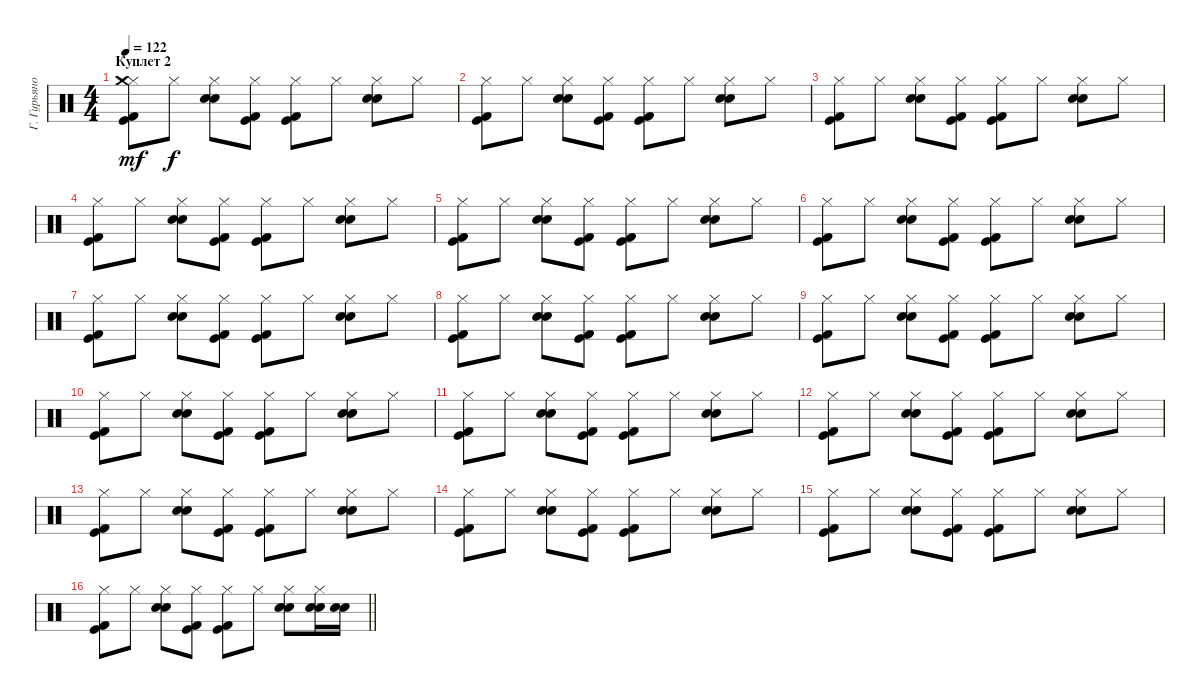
\track ("Г. Гурьянов" "Г. Гурьяно") {instrument percussion}
\staff
\articulation defaults
\ts (4 4)
\section ("" "Куплет 2")
\tempo 122
\clef neutral
\ks c
("Hi-Hat (closed)" "Crash medium (hit)" "Kick (hit)" "Kick (hit) 2").8{dy mf} "Hi-Hat (closed)".8{dy f} ("Hi-Hat (closed)" "Electric Snare (hit)" "Snare (hit) 2").8 ("Hi-Hat (closed)" "Kick (hit)" "Kick (hit) 2").8 ("Hi-Hat (closed)" "Kick (hit)" "Kick (hit) 2").8 "Hi-Hat (closed)".8 ("Hi-Hat (closed)" "Electric Snare (hit)" "Snare (hit) 2").8 "Hi-Hat (closed)".8 |
("Hi-Hat (closed)" "Kick (hit)" "Kick (hit) 2").8 "Hi-Hat (closed)".8 ("Hi-Hat (closed)" "Electric Snare (hit)" "Snare (hit) 2").8 ("Hi-Hat (closed)" "Kick (hit)" "Kick (hit) 2").8 ("Hi-Hat (closed)" "Kick (hit)" "Kick (hit) 2").8 "Hi-Hat (closed)".8 ("Hi-Hat (closed)" "Electric Snare (hit)" "Snare (hit) 2").8 "Hi-Hat (closed)".8 |
("Hi-Hat (closed)" "Kick (hit)" "Kick (hit) 2").8 "Hi-Hat (closed)".8 ("Hi-Hat (closed)" "Electric Snare (hit)" "Snare (hit) 2").8 ("Hi-Hat (closed)" "Kick (hit)" "Kick (hit) 2").8 ("Hi-Hat (closed)" "Kick (hit)" "Kick (hit) 2").8 "Hi-Hat (closed)".8 ("Hi-Hat (closed)" "Electric Snare (hit)" "Snare (hit) 2").8 "Hi-Hat (closed)".8 |
("Hi-Hat (closed)" "Kick (hit)" "Kick (hit) 2").8 "Hi-Hat (closed)".8 ("Hi-Hat (closed)" "Electric Snare (hit)" "Snare (hit) 2").8 ("Hi-Hat (closed)" "Kick (hit)" "Kick (hit) 2").8 ("Hi-Hat (closed)" "Kick (hit)" "Kick (hit) 2").8 "Hi-Hat (closed)".8 ("Hi-Hat (closed)" "Electric Snare (hit)" "Snare (hit) 2").8 "Hi-Hat (closed)".8 |
("Hi-Hat (closed)" "Kick (hit)" "Kick (hit) 2").8 "Hi-Hat (closed)".8 ("Hi-Hat (closed)" "Electric Snare (hit)" "Snare (hit) 2").8 ("Hi-Hat (closed)" "Kick (hit)" "Kick (hit) 2").8 ("Hi-Hat (closed)" "Kick (hit)" "Kick (hit) 2").8 "Hi-Hat (closed)".8 ("Hi-Hat (closed)" "Electric Snare (hit)" "Snare (hit) 2").8 "Hi-Hat (closed)".8 |
("Hi-Hat (closed)" "Kick (hit)" "Kick (hit) 2").8 "Hi-Hat (closed)".8 ("Hi-Hat (closed)" "Electric Snare (hit)" "Snare (hit) 2").8 ("Hi-Hat (closed)" "Kick (hit)" "Kick (hit) 2").8 ("Hi-Hat (closed)" "Kick (hit)" "Kick (hit) 2").8 "Hi-Hat (closed)".8 ("Hi-Hat (closed)" "Electric Snare (hit)" "Snare (hit) 2").8 "Hi-Hat (closed)".8 |
("Hi-Hat (closed)" "Kick (hit)" "Kick (hit) 2").8 "Hi-Hat (closed)".8 ("Hi-Hat (closed)" "Electric Snare (hit)" "Snare (hit) 2").8 ("Hi-Hat (closed)" "Kick (hit)" "Kick (hit) 2").8 ("Hi-Hat (closed)" "Kick (hit)" "Kick (hit) 2").8 "Hi-Hat (closed)".8 ("Hi-Hat (closed)" "Electric Snare (hit)" "Snare (hit) 2").8 "Hi-Hat (closed)".8 |
("Hi-Hat (closed)" "Kick (hit)" "Kick (hit) 2").8 "Hi-Hat (closed)".8 ("Hi-Hat (closed)" "Electric Snare (hit)" "Snare (hit) 2").8 ("Hi-Hat (closed)" "Kick (hit)" "Kick (hit) 2").8 ("Hi-Hat (closed)" "Kick (hit)" "Kick (hit) 2").8 "Hi-Hat (closed)".8 ("Hi-Hat (closed)" "Electric Snare (hit)" "Snare (hit) 2").8 "Hi-Hat (closed)".8 |
("Hi-Hat (closed)" "Kick (hit)" "Kick (hit) 2").8 "Hi-Hat (closed)".8 ("Hi-Hat (closed)" "Electric Snare (hit)" "Snare (hit) 2").8 ("Hi-Hat (closed)" "Kick (hit)" "Kick (hit) 2").8 ("Hi-Hat (closed)" "Kick (hit)" "Kick (hit) 2").8 "Hi-Hat (closed)".8 ("Hi-Hat (closed)" "Electric Snare (hit)" "Snare (hit) 2").8 "Hi-Hat (closed)".8 |
("Hi-Hat (closed)" "Kick (hit)" "Kick (hit) 2").8 "Hi-Hat (closed)".8 ("Hi-Hat (closed)" "Electric Snare (hit)" "Snare (hit) 2").8 ("Hi-Hat (closed)" "Kick (hit)" "Kick (hit) 2").8 ("Hi-Hat (closed)" "Kick (hit)" "Kick (hit) 2").8 "Hi-Hat (closed)".8 ("Hi-Hat (closed)" "Electric Snare (hit)" "Snare (hit) 2").8 "Hi-Hat (closed)".8 |
("Hi-Hat (closed)" "Kick (hit)" "Kick (hit) 2").8 "Hi-Hat (closed)".8 ("Hi-Hat (closed)" "Electric Snare (hit)" "Snare (hit) 2").8 ("Hi-Hat (closed)" "Kick (hit)" "Kick (hit) 2").8 ("Hi-Hat (closed)" "Kick (hit)" "Kick (hit) 2").8 "Hi-Hat (closed)".8 ("Hi-Hat (closed)" "Electric Snare (hit)" "Snare (hit) 2").8 "Hi-Hat (closed)".8 |
("Hi-Hat (closed)" "Kick (hit)" "Kick (hit) 2").8 "Hi-Hat (closed)".8 ("Hi-Hat (closed)" "Electric Snare (hit)" "Snare (hit) 2").8 ("Hi-Hat (closed)" "Kick (hit)" "Kick (hit) 2").8 ("Hi-Hat (closed)" "Kick (hit)" "Kick (hit) 2").8 "Hi-Hat (closed)".8 ("Hi-Hat (closed)" "Electric Snare (hit)" "Snare (hit) 2").8 "Hi-Hat (closed)".8 |
("Hi-Hat (closed)" "Kick (hit)" "Kick (hit) 2").8 "Hi-Hat (closed)".8 ("Hi-Hat (closed)" "Electric Snare (hit)" "Snare (hit) 2").8 ("Hi-Hat (closed)" "Kick (hit)" "Kick (hit) 2").8 ("Hi-Hat (closed)" "Kick (hit)" "Kick (hit) 2").8 "Hi-Hat (closed)".8 ("Hi-Hat (closed)" "Electric Snare (hit)" "Snare (hit) 2").8 "Hi-Hat (closed)".8 |
("Hi-Hat (closed)" "Kick (hit)" "Kick (hit) 2").8 "Hi-Hat (closed)".8 ("Hi-Hat (closed)" "Electric Snare (hit)" "Snare (hit) 2").8 ("Hi-Hat (closed)" "Kick (hit)" "Kick (hit) 2").8 ("Hi-Hat (closed)" "Kick (hit)" "Kick (hit) 2").8 "Hi-Hat (closed)".8 ("Hi-Hat (closed)" "Electric Snare (hit)" "Snare (hit) 2").8 "Hi-Hat (closed)".8 |
("Hi-Hat (closed)" "Kick (hit)" "Kick (hit) 2").8 "Hi-Hat (closed)".8 ("Hi-Hat (closed)" "Electric Snare (hit)" "Snare (hit) 2").8 ("Hi-Hat (closed)" "Kick (hit)" "Kick (hit) 2").8 ("Hi-Hat (closed)" "Kick (hit)" "Kick (hit) 2").8 "Hi-Hat (closed)".8 ("Hi-Hat (closed)" "Electric Snare (hit)" "Snare (hit) 2").8 "Hi-Hat (closed)".8 |
\barLineRight lightlight
("Hi-Hat (closed)" "Kick (hit)" "Kick (hit) 2").8 "Hi-Hat (closed)".8 ("Hi-Hat (closed)" "Electric Snare (hit)" "Snare (hit) 2").8 ("Hi-Hat (closed)" "Kick (hit)" "Kick (hit) 2").8 ("Hi-Hat (closed)" "Kick (hit)" "Kick (hit) 2").8 "Hi-Hat (closed)".8 ("Hi-Hat (closed)" "Electric Snare (hit)" "Snare (hit) 2").8 ("Hi-Hat (closed)" "Electric Snare (hit)" "Snare (hit) 2").16 ("Electric Snare (hit)" "Snare (hit) 2").16
